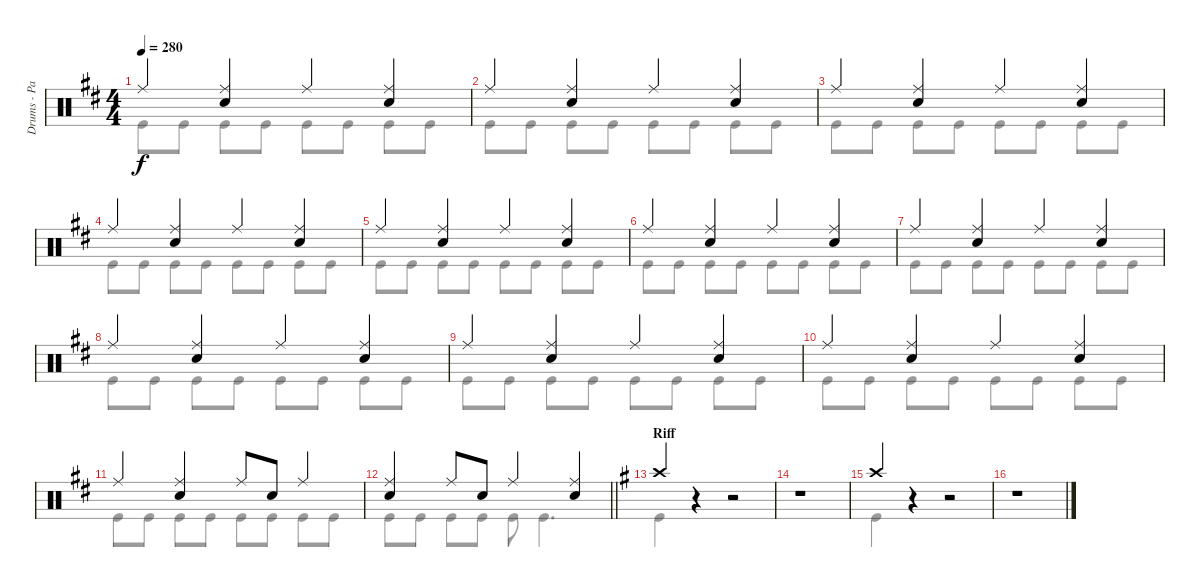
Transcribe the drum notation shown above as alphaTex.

\track ("Drums - Patrick Johansson" "Drums - Pa") {instrument percussion}
\staff {score}
\articulation defaults
\voice
\ts (4 4)
\tempo 280
\clef neutral
\ks bminor "Ride (middle)".4{dy f}
("Ride (middle)" "Snare (hit) 2").4 "Ride (middle)".4 ("Ride (middle)" "Snare (hit) 2").4 |
"Ride (middle)".4 ("Ride (middle)" "Snare (hit) 2").4 "Ride (middle)".4 ("Ride (middle)" "Snare (hit) 2").4 |
"Ride (middle)".4 ("Ride (middle)" "Snare (hit) 2").4 "Ride (middle)".4 ("Ride (middle)" "Snare (hit) 2").4 |
"Ride (middle)".4 ("Ride (middle)" "Snare (hit) 2").4 "Ride (middle)".4 ("Ride (middle)" "Snare (hit) 2").4 |
"Ride (middle)".4 ("Ride (middle)" "Snare (hit) 2").4 "Ride (middle)".4 ("Ride (middle)" "Snare (hit) 2").4 |
"Ride (middle)".4 ("Ride (middle)" "Snare (hit) 2").4 "Ride (middle)".4 ("Ride (middle)" "Snare (hit) 2").4 |
"Ride (middle)".4 ("Ride (middle)" "Snare (hit) 2").4 "Ride (middle)".4 ("Ride (middle)" "Snare (hit) 2").4 |
"Ride (middle)".4 ("Ride (middle)" "Snare (hit) 2").4 "Ride (middle)".4 ("Ride (middle)" "Snare (hit) 2").4 |
"Ride (middle)".4 ("Ride (middle)" "Snare (hit) 2").4 "Ride (middle)".4 ("Ride (middle)" "Snare (hit) 2").4 |
"Ride (middle)".4 ("Ride (middle)" "Snare (hit) 2").4 "Ride (middle)".4 ("Ride (middle)" "Snare (hit) 2").4 |
"Ride (middle)".4 ("Ride (middle)" "Snare (hit) 2").4 "Ride (middle)".8 "Snare (hit) 2".8 "Ride (middle)".4 |
\barLineRight lightlight
("Ride (middle)" "Snare (hit) 2").4 "Ride (middle)".8 "Snare (hit) 2".8 "Ride (middle)".4 ("Ride (middle)" "Snare (hit) 2").4 |
\section ("" "Riff")
\ks eminor "Crash high (hit)".4
r.4 r.2 |
r.1 |
"Crash high (hit)".4 r.4 r.2 |
r.1
\voice
\clef neutral
\ottava regular
\simile none
\ks bminor "Kick (hit)".8{dy f} "Kick (hit)".8 "Kick (hit)".8 "Kick (hit)".8 "Kick (hit)".8 "Kick (hit)".8 "Kick (hit)".8 "Kick (hit)".8
|
"Kick (hit)".8 "Kick (hit)".8 "Kick (hit)".8 "Kick (hit)".8 "Kick (hit)".8 "Kick (hit)".8 "Kick (hit)".8 "Kick (hit)".8 |
"Kick (hit)".8 "Kick (hit)".8 "Kick (hit)".8 "Kick (hit)".8 "Kick (hit)".8 "Kick (hit)".8 "Kick (hit)".8 "Kick (hit)".8 |
"Kick (hit)".8 "Kick (hit)".8 "Kick (hit)".8 "Kick (hit)".8 "Kick (hit)".8 "Kick (hit)".8 "Kick (hit)".8 "Kick (hit)".8 |
"Kick (hit)".8 "Kick (hit)".8 "Kick (hit)".8 "Kick (hit)".8 "Kick (hit)".8 "Kick (hit)".8 "Kick (hit)".8 "Kick (hit)".8 |
"Kick (hit)".8 "Kick (hit)".8 "Kick (hit)".8 "Kick (hit)".8 "Kick (hit)".8 "Kick (hit)".8 "Kick (hit)".8 "Kick (hit)".8 |
"Kick (hit)".8 "Kick (hit)".8 "Kick (hit)".8 "Kick (hit)".8 "Kick (hit)".8 "Kick (hit)".8 "Kick (hit)".8 "Kick (hit)".8 |
"Kick (hit)".8 "Kick (hit)".8 "Kick (hit)".8 "Kick (hit)".8 "Kick (hit)".8 "Kick (hit)".8 "Kick (hit)".8 "Kick (hit)".8 |
"Kick (hit)".8 "Kick (hit)".8 "Kick (hit)".8 "Kick (hit)".8 "Kick (hit)".8 "Kick (hit)".8 "Kick (hit)".8 "Kick (hit)".8 |
"Kick (hit)".8 "Kick (hit)".8 "Kick (hit)".8 "Kick (hit)".8 "Kick (hit)".8 "Kick (hit)".8 "Kick (hit)".8 "Kick (hit)".8 |
"Kick (hit)".8 "Kick (hit)".8 "Kick (hit)".8 "Kick (hit)".8 "Kick (hit)".8 "Kick (hit)".8 "Kick (hit)".8 "Kick (hit)".8 |
\barLineRight lightlight "Kick (hit)".8 "Kick (hit)".8 "Kick (hit)".8 "Kick (hit)".8 "Kick (hit)".8 "Kick (hit)".4{d}
|
\ks eminor "Kick (hit)".4
r.4 r.2 |
r.1 |
"Kick (hit)".4 r.4 r.2 |
r.1
